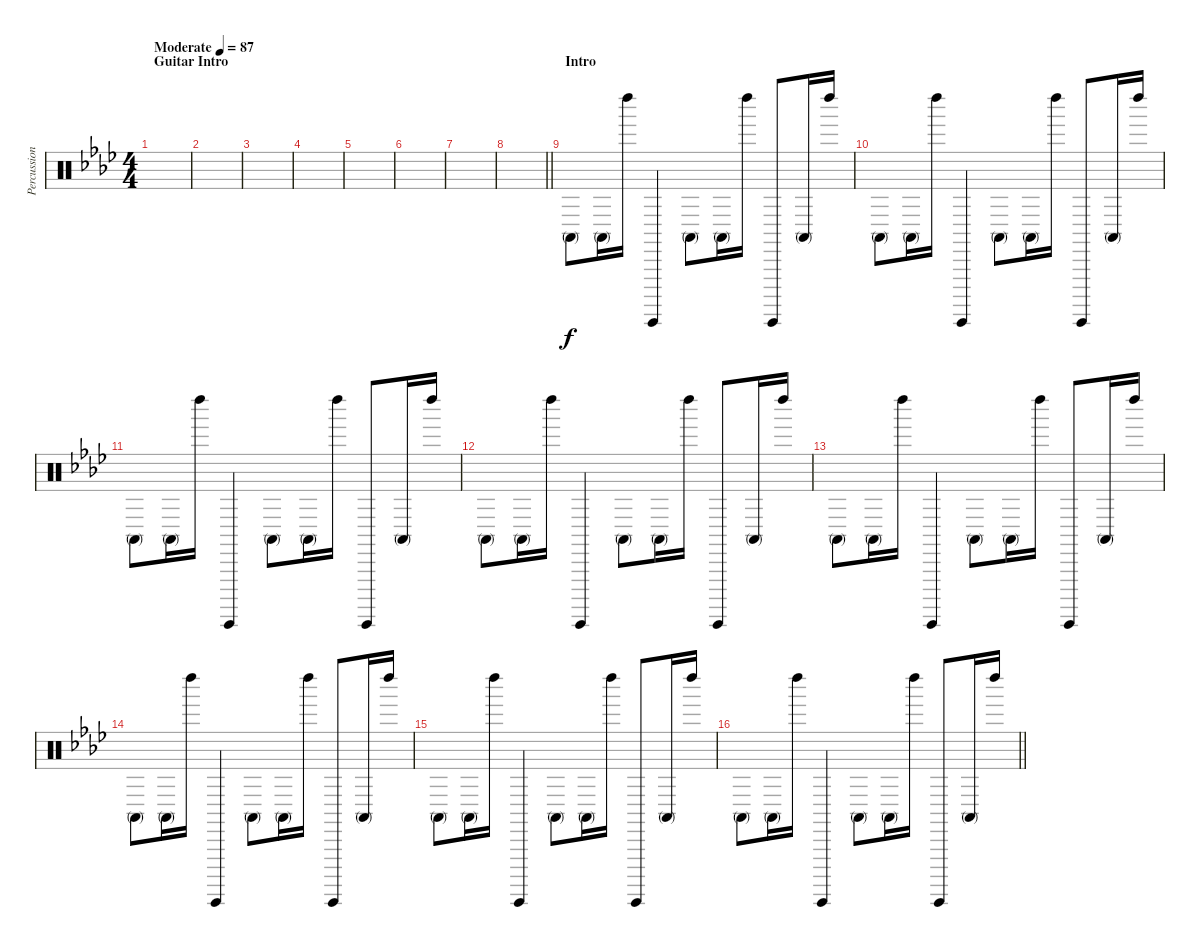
\track ("Percussion" "Percussion") {instrument percussion}
\staff {score}
\articulation defaults
\ts (4 4)
\section ("" "Guitar Intro")
\tempo (87 "Moderate")
\clef neutral
\ks fminor
|
|
|
|
|
|
|
\barLineRight lightlight
|
\section ("" "Intro")
"Conga high (mute)".8 "Conga high (mute)".16 "Left Maraca (hit)".16 "Guiro (hit)".4 "Conga high (mute)".8 "Conga high (mute)".16 "Left Maraca (hit)".16 "Guiro (hit)".8 "Conga high (mute)".16 "Left Maraca (hit)".16 |
"Conga high (mute)".8 "Conga high (mute)".16 "Left Maraca (hit)".16 "Guiro (hit)".4 "Conga high (mute)".8 "Conga high (mute)".16 "Left Maraca (hit)".16 "Guiro (hit)".8 "Conga high (mute)".16 "Left Maraca (hit)".16 |
"Conga high (mute)".8 "Conga high (mute)".16 "Left Maraca (hit)".16 "Guiro (hit)".4 "Conga high (mute)".8 "Conga high (mute)".16 "Left Maraca (hit)".16 "Guiro (hit)".8 "Conga high (mute)".16 "Left Maraca (hit)".16 |
"Conga high (mute)".8 "Conga high (mute)".16 "Left Maraca (hit)".16 "Guiro (hit)".4 "Conga high (mute)".8 "Conga high (mute)".16 "Left Maraca (hit)".16 "Guiro (hit)".8 "Conga high (mute)".16 "Left Maraca (hit)".16 |
"Conga high (mute)".8 "Conga high (mute)".16 "Left Maraca (hit)".16 "Guiro (hit)".4 "Conga high (mute)".8 "Conga high (mute)".16 "Left Maraca (hit)".16 "Guiro (hit)".8 "Conga high (mute)".16 "Left Maraca (hit)".16 |
"Conga high (mute)".8 "Conga high (mute)".16 "Left Maraca (hit)".16 "Guiro (hit)".4 "Conga high (mute)".8 "Conga high (mute)".16 "Left Maraca (hit)".16 "Guiro (hit)".8 "Conga high (mute)".16 "Left Maraca (hit)".16 |
"Conga high (mute)".8 "Conga high (mute)".16 "Left Maraca (hit)".16 "Guiro (hit)".4 "Conga high (mute)".8 "Conga high (mute)".16 "Left Maraca (hit)".16 "Guiro (hit)".8 "Conga high (mute)".16 "Left Maraca (hit)".16 |
\barLineRight lightlight "Conga high (mute)".8 "Conga high (mute)".16 "Left Maraca (hit)".16 "Guiro (hit)".4 "Conga high (mute)".8 "Conga high (mute)".16 "Left Maraca (hit)".16 "Guiro (hit)".8 "Conga high (mute)".16 "Left Maraca (hit)".16
